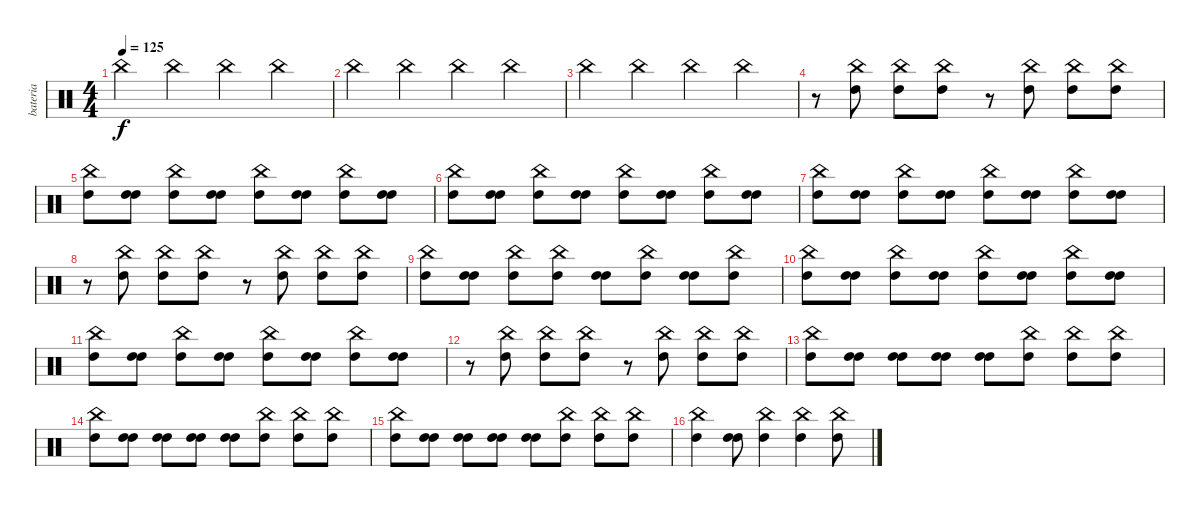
\track ("bateria" "bateria") {instrument percussion}
\staff {score}
\articulation defaults
\ts (4 4)
\tempo 125
\clef neutral
\ks c "China (hit)".4{dy f} "China (hit)".4 "China (hit)".4 "China (hit)".4
|
"China (hit)".4 "China (hit)".4 "China (hit)".4 "China (hit)".4 |
"China (hit)".4 "China (hit)".4 "China (hit)".4 "China (hit)".4 |
r.8 ("China (hit)" "High Tom (hit)").8 ("China (hit)" "High Tom (hit)").8 ("China (hit)" "High Tom (hit)").8 r.8 ("China (hit)" "High Tom (hit)").8 ("China (hit)" "High Tom (hit)").8 ("China (hit)" "High Tom (hit)").8 |
("China (hit)" "High Tom (hit)").8 ("High Tom (hit)" "High Tom (hit)").8 ("China (hit)" "High Tom (hit)").8 ("High Tom (hit)" "High Tom (hit)").8 ("China (hit)" "High Tom (hit)").8 ("High Tom (hit)" "High Tom (hit)").8 ("China (hit)" "High Tom (hit)").8 ("High Tom (hit)" "High Tom (hit)").8 |
("China (hit)" "High Tom (hit)").8 ("High Tom (hit)" "High Tom (hit)").8 ("China (hit)" "High Tom (hit)").8 ("High Tom (hit)" "High Tom (hit)").8 ("China (hit)" "High Tom (hit)").8 ("High Tom (hit)" "High Tom (hit)").8 ("China (hit)" "High Tom (hit)").8 ("High Tom (hit)" "High Tom (hit)").8 |
("China (hit)" "High Tom (hit)").8 ("High Tom (hit)" "High Tom (hit)").8 ("China (hit)" "High Tom (hit)").8 ("High Tom (hit)" "High Tom (hit)").8 ("China (hit)" "High Tom (hit)").8 ("High Tom (hit)" "High Tom (hit)").8 ("China (hit)" "High Tom (hit)").8 ("High Tom (hit)" "High Tom (hit)").8 |
r.8 ("China (hit)" "High Tom (hit)").8 ("China (hit)" "High Tom (hit)").8 ("China (hit)" "High Tom (hit)").8 r.8 ("China (hit)" "High Tom (hit)").8 ("China (hit)" "High Tom (hit)").8 ("China (hit)" "High Tom (hit)").8 |
("China (hit)" "High Tom (hit)").8 ("High Tom (hit)" "High Tom (hit)").8 ("China (hit)" "High Tom (hit)").8 ("China (hit)" "High Tom (hit)").8 ("High Tom (hit)" "High Tom (hit)").8 ("China (hit)" "High Tom (hit)").8 ("High Tom (hit)" "High Tom (hit)").8 ("China (hit)" "High Tom (hit)").8 |
("China (hit)" "High Tom (hit)").8 ("High Tom (hit)" "High Tom (hit)").8 ("China (hit)" "High Tom (hit)").8 ("High Tom (hit)" "High Tom (hit)").8 ("China (hit)" "High Tom (hit)").8 ("High Tom (hit)" "High Tom (hit)").8 ("China (hit)" "High Tom (hit)").8 ("High Tom (hit)" "High Tom (hit)").8 |
("China (hit)" "High Tom (hit)").8 ("High Tom (hit)" "High Tom (hit)").8 ("China (hit)" "High Tom (hit)").8 ("High Tom (hit)" "High Tom (hit)").8 ("China (hit)" "High Tom (hit)").8 ("High Tom (hit)" "High Tom (hit)").8 ("China (hit)" "High Tom (hit)").8 ("High Tom (hit)" "High Tom (hit)").8 |
r.8 ("China (hit)" "High Tom (hit)").8 ("China (hit)" "High Tom (hit)").8 ("China (hit)" "High Tom (hit)").8 r.8 ("China (hit)" "High Tom (hit)").8 ("China (hit)" "High Tom (hit)").8 ("China (hit)" "High Tom (hit)").8 |
("China (hit)" "High Tom (hit)").8 ("High Tom (hit)" "High Tom (hit)").8 ("High Tom (hit)" "High Tom (hit)").8 ("High Tom (hit)" "High Tom (hit)").8 ("High Tom (hit)" "High Tom (hit)").8 ("China (hit)" "High Tom (hit)").8 ("China (hit)" "High Tom (hit)").8 ("China (hit)" "High Tom (hit)").8 |
("China (hit)" "High Tom (hit)").8 ("High Tom (hit)" "High Tom (hit)").8 ("High Tom (hit)" "High Tom (hit)").8 ("High Tom (hit)" "High Tom (hit)").8 ("High Tom (hit)" "High Tom (hit)").8 ("China (hit)" "High Tom (hit)").8 ("China (hit)" "High Tom (hit)").8 ("China (hit)" "High Tom (hit)").8 |
("China (hit)" "High Tom (hit)").8 ("High Tom (hit)" "High Tom (hit)").8 ("High Tom (hit)" "High Tom (hit)").8 ("High Tom (hit)" "High Tom (hit)").8 ("High Tom (hit)" "High Tom (hit)").8 ("China (hit)" "High Tom (hit)").8 ("China (hit)" "High Tom (hit)").8 ("China (hit)" "High Tom (hit)").8 |
("China (hit)" "High Tom (hit)").4 ("High Tom (hit)" "High Tom (hit)").8 ("China (hit)" "High Tom (hit)").4 ("China (hit)" "High Tom (hit)").4 ("China (hit)" "High Tom (hit)").8
